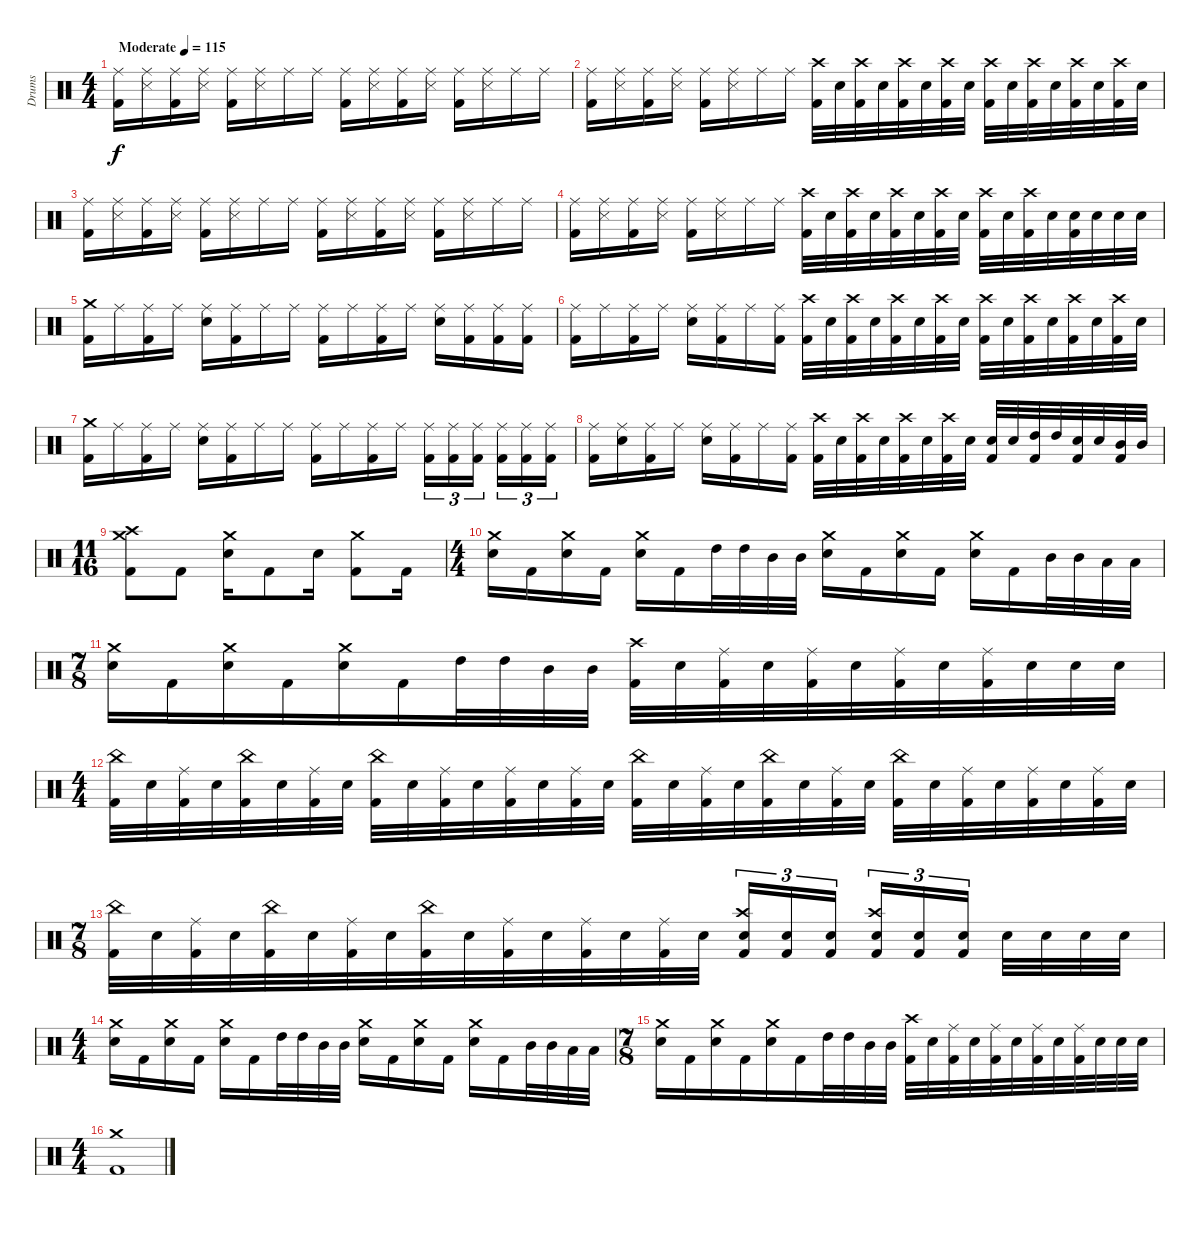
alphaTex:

\track ("Drums" "Drums") {instrument percussion}
\staff {score}
\articulation defaults
\ts (4 4)
\tempo (115 "Moderate")
\clef neutral
\ks c
("Ride (middle)" "Kick (hit) 2").16{dy f} ("Ride (middle)" "Snare (side stick) 3").16 ("Ride (middle)" "Kick (hit) 2").16 ("Ride (middle)" "Snare (side stick) 3").16 ("Ride (middle)" "Kick (hit) 2").16 ("Ride (middle)" "Snare (side stick) 3").16 "Ride (middle)".16 "Ride (middle)".16 ("Ride (middle)" "Kick (hit) 2").16 ("Ride (middle)" "Snare (side stick) 3").16 ("Ride (middle)" "Kick (hit) 2").16 ("Ride (middle)" "Snare (side stick) 3").16 ("Ride (middle)" "Kick (hit) 2").16 ("Ride (middle)" "Snare (side stick) 3").16 "Ride (middle)".16 "Ride (middle)".16 |
("Ride (middle)" "Kick (hit) 2").16 ("Ride (middle)" "Snare (side stick) 3").16 ("Ride (middle)" "Kick (hit) 2").16 ("Ride (middle)" "Snare (side stick) 3").16 ("Ride (middle)" "Kick (hit) 2").16 ("Ride (middle)" "Snare (side stick) 3").16 "Ride (middle)".16 "Ride (middle)".16 ("Crash high (hit)" "Kick (hit) 2").32 "Electric Snare (hit)".32 ("Crash high (hit)" "Kick (hit) 2").32 "Electric Snare (hit)".32 ("Crash high (hit)" "Kick (hit) 2").32 "Electric Snare (hit)".32 ("Crash high (hit)" "Kick (hit) 2").32 "Electric Snare (hit)".32 ("Crash high (hit)" "Kick (hit) 2").32 "Electric Snare (hit)".32 ("Crash high (hit)" "Kick (hit) 2").32 "Electric Snare (hit)".32 ("Crash high (hit)" "Kick (hit) 2").32 "Electric Snare (hit)".32 ("Crash high (hit)" "Kick (hit) 2").32 "Electric Snare (hit)".32 |
("Ride (middle)" "Kick (hit) 2").16 ("Ride (middle)" "Snare (side stick) 3").16 ("Ride (middle)" "Kick (hit) 2").16 ("Ride (middle)" "Snare (side stick) 3").16 ("Ride (middle)" "Kick (hit) 2").16 ("Ride (middle)" "Snare (side stick) 3").16 "Ride (middle)".16 "Ride (middle)".16 ("Ride (middle)" "Kick (hit) 2").16 ("Ride (middle)" "Snare (side stick) 3").16 ("Ride (middle)" "Kick (hit) 2").16 ("Ride (middle)" "Snare (side stick) 3").16 ("Ride (middle)" "Kick (hit) 2").16 ("Ride (middle)" "Snare (side stick) 3").16 "Ride (middle)".16 "Ride (middle)".16 |
("Ride (middle)" "Kick (hit) 2").16 ("Ride (middle)" "Snare (side stick) 3").16 ("Ride (middle)" "Kick (hit) 2").16 ("Ride (middle)" "Snare (side stick) 3").16 ("Ride (middle)" "Kick (hit) 2").16 ("Ride (middle)" "Snare (side stick) 3").16 "Ride (middle)".16 "Ride (middle)".16 ("Crash high (hit)" "Kick (hit) 2").32 "Electric Snare (hit)".32 ("Crash high (hit)" "Kick (hit) 2").32 "Electric Snare (hit)".32 ("Crash high (hit)" "Kick (hit) 2").32 "Electric Snare (hit)".32 ("Crash high (hit)" "Kick (hit) 2").32 "Electric Snare (hit)".32 ("Crash high (hit)" "Kick (hit) 2").32 "Electric Snare (hit)".32 ("Crash high (hit)" "Kick (hit) 2").32 "Electric Snare (hit)".32 ("Electric Snare (hit)" "Kick (hit) 2").32 "Electric Snare (hit)".32 "Electric Snare (hit)".32 "Electric Snare (hit)".32 |
("Crash medium (hit)" "Kick (hit) 2").16 "Ride (middle)".16 ("Ride (middle)" "Kick (hit) 2").16 "Ride (middle)".16 ("Ride (middle)" "Electric Snare (hit)").16 ("Ride (middle)" "Kick (hit) 2").16 "Ride (middle)".16 "Ride (middle)".16 ("Ride (middle)" "Kick (hit) 2").16 "Ride (middle)".16 ("Ride (middle)" "Kick (hit) 2").16 "Ride (middle)".16 ("Ride (middle)" "Electric Snare (hit)").16 ("Ride (middle)" "Kick (hit) 2").16 ("Ride (middle)" "Kick (hit) 2").16 ("Ride (middle)" "Kick (hit) 2").16 |
("Ride (middle)" "Kick (hit) 2").16 "Ride (middle)".16 ("Ride (middle)" "Kick (hit) 2").16 "Ride (middle)".16 ("Ride (middle)" "Electric Snare (hit)").16 ("Ride (middle)" "Kick (hit) 2").16 "Ride (middle)".16 ("Ride (middle)" "Kick (hit) 2").16 ("Crash high (hit)" "Kick (hit) 2").32 "Electric Snare (hit)".32 ("Crash high (hit)" "Kick (hit) 2").32 "Electric Snare (hit)".32 ("Crash high (hit)" "Kick (hit) 2").32 "Electric Snare (hit)".32 ("Crash high (hit)" "Kick (hit) 2").32 "Electric Snare (hit)".32 ("Crash high (hit)" "Kick (hit) 2").32 "Electric Snare (hit)".32 ("Crash high (hit)" "Kick (hit) 2").32 "Electric Snare (hit)".32 ("Crash high (hit)" "Kick (hit) 2").32 "Electric Snare (hit)".32 ("Crash high (hit)" "Kick (hit) 2").32 "Electric Snare (hit)".32 |
("Crash medium (hit)" "Kick (hit) 2").16 "Ride (middle)".16 ("Ride (middle)" "Kick (hit) 2").16 "Ride (middle)".16 ("Ride (middle)" "Electric Snare (hit)").16 ("Ride (middle)" "Kick (hit) 2").16 "Ride (middle)".16 "Ride (middle)".16 ("Ride (middle)" "Kick (hit) 2").16 "Ride (middle)".16 ("Ride (middle)" "Kick (hit) 2").16 "Ride (middle)".16 ("Ride (middle)" "Kick (hit) 2").16{tu (3 2)} ("Ride (middle)" "Kick (hit) 2").16{tu (3 2)} ("Ride (middle)" "Kick (hit) 2").16{tu (3 2) beam splitsecondary} ("Ride (middle)" "Kick (hit) 2").16{tu (3 2)} ("Ride (middle)" "Kick (hit) 2").16{tu (3 2)} ("Ride (middle)" "Kick (hit) 2").16{tu (3 2)} |
("Ride (middle)" "Kick (hit) 2").16 ("Ride (middle)" "Electric Snare (hit)").16 ("Ride (middle)" "Kick (hit) 2").16 "Ride (middle)".16 ("Ride (middle)" "Electric Snare (hit)").16 ("Ride (middle)" "Kick (hit) 2").16 "Ride (middle)".16 ("Ride (middle)" "Kick (hit) 2").16 ("Crash high (hit)" "Kick (hit) 2").32 "Electric Snare (hit)".32 ("Crash high (hit)" "Kick (hit) 2").32 "Electric Snare (hit)".32 ("Crash high (hit)" "Kick (hit) 2").32 "Electric Snare (hit)".32 ("Crash high (hit)" "Kick (hit) 2").32 "Electric Snare (hit)".32 ("Electric Snare (hit)" "Kick (hit) 2").32 "Electric Snare (hit)".32 ("High Tom (hit)" "Kick (hit) 2").32 "High Tom (hit)".32 ("Electric Snare (hit)" "Kick (hit) 2").32 "Electric Snare (hit)".32 ("Mid Tom (hit)" "Kick (hit) 2").32 "Mid Tom (hit)".32 |
\ts (11 16)
("Crash medium (hit)" "Crash high (hit)" "Kick (hit) 2").8 "Kick (hit) 2".8 ("Crash medium (hit)" "Electric Snare (hit)").16 "Kick (hit) 2".8 "Electric Snare (hit)".16 ("Crash medium (hit)" "Kick (hit) 2").8 "Kick (hit) 2".16 |
\ts (4 4)
("Crash medium (hit)" "Electric Snare (hit)").16 "Kick (hit) 2".16 ("Crash medium (hit)" "Electric Snare (hit)").16 "Kick (hit) 2".16 ("Crash medium (hit)" "Electric Snare (hit)").16 "Kick (hit) 2".16 "High Tom (hit)".32 "High Tom (hit)".32 "Mid Tom (hit)".32 "Mid Tom (hit)".32 ("Crash medium (hit)" "Electric Snare (hit)").16 "Kick (hit) 2".16 ("Crash medium (hit)" "Electric Snare (hit)").16 "Kick (hit) 2".16 ("Crash medium (hit)" "Electric Snare (hit)").16 "Kick (hit) 2".16 "Mid Tom (hit)".32 "Mid Tom (hit)".32 "Low Tom (hit)".32 "Low Tom (hit)".32 |
\ts (7 8)
("Crash medium (hit)" "Electric Snare (hit)").16 "Kick (hit) 2".16 ("Crash medium (hit)" "Electric Snare (hit)").16 "Kick (hit) 2".16 ("Crash medium (hit)" "Electric Snare (hit)").16 "Kick (hit) 2".16 "High Tom (hit)".32 "High Tom (hit)".32 "Mid Tom (hit)".32 "Mid Tom (hit)".32 ("Crash high (hit)" "Kick (hit) 2").32 "Electric Snare (hit)".32 ("Ride (middle)" "Kick (hit) 2").32 "Electric Snare (hit)".32 ("Ride (middle)" "Kick (hit) 2").32 "Electric Snare (hit)".32 ("Ride (middle)" "Kick (hit) 2").32 "Electric Snare (hit)".32 ("Ride (middle)" "Kick (hit) 2").32 "Electric Snare (hit)".32 "Electric Snare (hit)".32 "Electric Snare (hit)".32 |
\ts (4 4)
("China (hit)" "Kick (hit) 2").32 "Electric Snare (hit)".32 ("Ride (middle)" "Kick (hit) 2").32 "Electric Snare (hit)".32 ("China (hit)" "Kick (hit) 2").32 "Electric Snare (hit)".32 ("Ride (middle)" "Kick (hit) 2").32 "Electric Snare (hit)".32 ("China (hit)" "Kick (hit) 2").32 "Electric Snare (hit)".32 ("Ride (middle)" "Kick (hit) 2").32 "Electric Snare (hit)".32 ("Ride (middle)" "Kick (hit) 2").32 "Electric Snare (hit)".32 ("Ride (middle)" "Kick (hit) 2").32 "Electric Snare (hit)".32 ("China (hit)" "Kick (hit) 2").32 "Electric Snare (hit)".32 ("Ride (middle)" "Kick (hit) 2").32 "Electric Snare (hit)".32 ("China (hit)" "Kick (hit) 2").32 "Electric Snare (hit)".32 ("Ride (middle)" "Kick (hit) 2").32 "Electric Snare (hit)".32 ("China (hit)" "Kick (hit) 2").32 "Electric Snare (hit)".32 ("Ride (middle)" "Kick (hit) 2").32 "Electric Snare (hit)".32 ("Ride (middle)" "Kick (hit) 2").32 "Electric Snare (hit)".32 ("Ride (middle)" "Kick (hit) 2").32 "Electric Snare (hit)".32 |
\ts (7 8)
("China (hit)" "Kick (hit) 2").32 "Electric Snare (hit)".32 ("Ride (middle)" "Kick (hit) 2").32 "Electric Snare (hit)".32 ("China (hit)" "Kick (hit) 2").32 "Electric Snare (hit)".32 ("Ride (middle)" "Kick (hit) 2").32 "Electric Snare (hit)".32 ("China (hit)" "Kick (hit) 2").32 "Electric Snare (hit)".32 ("Ride (middle)" "Kick (hit) 2").32 "Electric Snare (hit)".32 ("Ride (middle)" "Kick (hit) 2").32 "Electric Snare (hit)".32 ("Ride (middle)" "Kick (hit) 2").32 "Electric Snare (hit)".32 ("Crash high (hit)" "Electric Snare (hit)" "Kick (hit) 2").16{tu (3 2)} ("Electric Snare (hit)" "Kick (hit) 2").16{tu (3 2)} ("Electric Snare (hit)" "Kick (hit) 2").16{tu (3 2)} ("Crash high (hit)" "Electric Snare (hit)" "Kick (hit) 2").16{tu (3 2)} ("Electric Snare (hit)" "Kick (hit) 2").16{tu (3 2)} ("Electric Snare (hit)" "Kick (hit) 2").16{tu (3 2)} "Electric Snare (hit)".32 "Electric Snare (hit)".32 "Electric Snare (hit)".32 "Electric Snare (hit)".32 |
\ts (4 4)
("Crash medium (hit)" "Electric Snare (hit)").16 "Kick (hit) 2".16 ("Crash medium (hit)" "Electric Snare (hit)").16 "Kick (hit) 2".16 ("Crash medium (hit)" "Electric Snare (hit)").16 "Kick (hit) 2".16 "High Tom (hit)".32 "High Tom (hit)".32 "Mid Tom (hit)".32 "Mid Tom (hit)".32 ("Crash medium (hit)" "Electric Snare (hit)").16 "Kick (hit) 2".16 ("Crash medium (hit)" "Electric Snare (hit)").16 "Kick (hit) 2".16 ("Crash medium (hit)" "Electric Snare (hit)").16 "Kick (hit) 2".16 "Mid Tom (hit)".32 "Mid Tom (hit)".32 "Low Tom (hit)".32 "Low Tom (hit)".32 |
\ts (7 8)
("Crash medium (hit)" "Electric Snare (hit)").16 "Kick (hit) 2".16 ("Crash medium (hit)" "Electric Snare (hit)").16 "Kick (hit) 2".16 ("Crash medium (hit)" "Electric Snare (hit)").16 "Kick (hit) 2".16 "High Tom (hit)".32 "High Tom (hit)".32 "Mid Tom (hit)".32 "Mid Tom (hit)".32 ("Crash high (hit)" "Kick (hit) 2").32 "Electric Snare (hit)".32 ("Ride (middle)" "Kick (hit) 2").32 "Electric Snare (hit)".32 ("Ride (middle)" "Kick (hit) 2").32 "Electric Snare (hit)".32 ("Ride (middle)" "Kick (hit) 2").32 "Electric Snare (hit)".32 ("Ride (middle)" "Kick (hit) 2").32 "Electric Snare (hit)".32 "Electric Snare (hit)".32 "Electric Snare (hit)".32 |
\ts (4 4)
("Crash medium (hit)" "Kick (hit) 2").1
